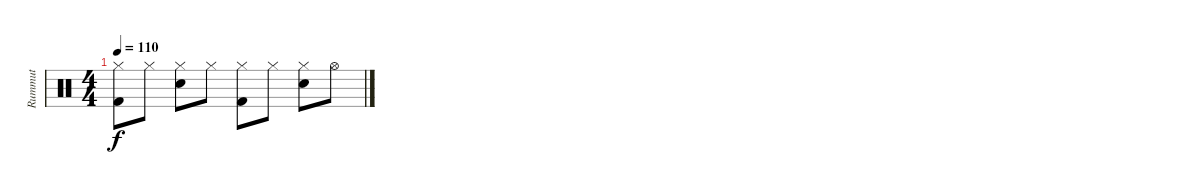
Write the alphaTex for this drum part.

\track ("Rummut" "Rummut") {instrument percussion}
\staff {score}
\articulation defaults
\ts (4 4)
\tempo 110
\clef neutral
\ks c
("Hi-Hat (closed)" "Kick (hit) 2").8{dy f} "Hi-Hat (closed)".8 ("Hi-Hat (closed)" "Snare (hit) 2").8 "Hi-Hat (closed)".8 ("Hi-Hat (closed)" "Kick (hit) 2").8 "Hi-Hat (closed)".8 ("Hi-Hat (closed)" "Snare (hit) 2").8 "Hi-Hat (open)".8
